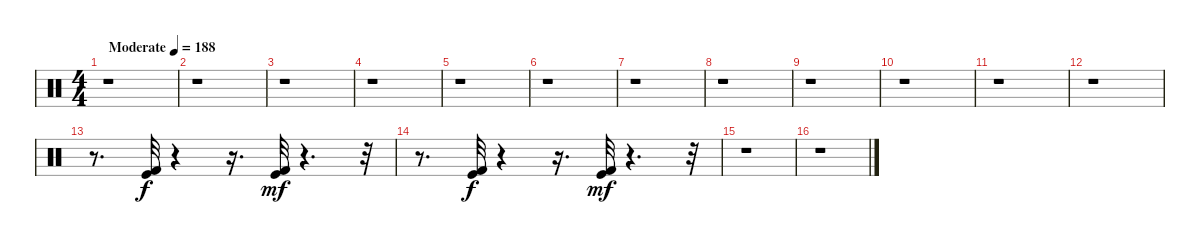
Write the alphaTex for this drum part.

\track "" {instrument percussion}
\staff {score}
\articulation defaults
\ts (4 4)
\tempo (188 "Moderate")
\clef neutral
\ks c
r.1{dy f} |
r.1 |
r.1 |
r.1 |
r.1 |
r.1 |
r.1 |
r.1 |
r.1 |
r.1 |
r.1 |
r.1 |
r.8{d} ("Kick (hit) 2" "Kick (hit)").32 r.4 r.16{d} ("Kick (hit) 2" "Kick (hit)").32{dy mf} r.4{d} r.32 |
r.8{d} ("Kick (hit) 2" "Kick (hit)").32{dy f} r.4 r.16{d} ("Kick (hit) 2" "Kick (hit)").32{dy mf} r.4{d} r.32 |
r.1 |
r.1
